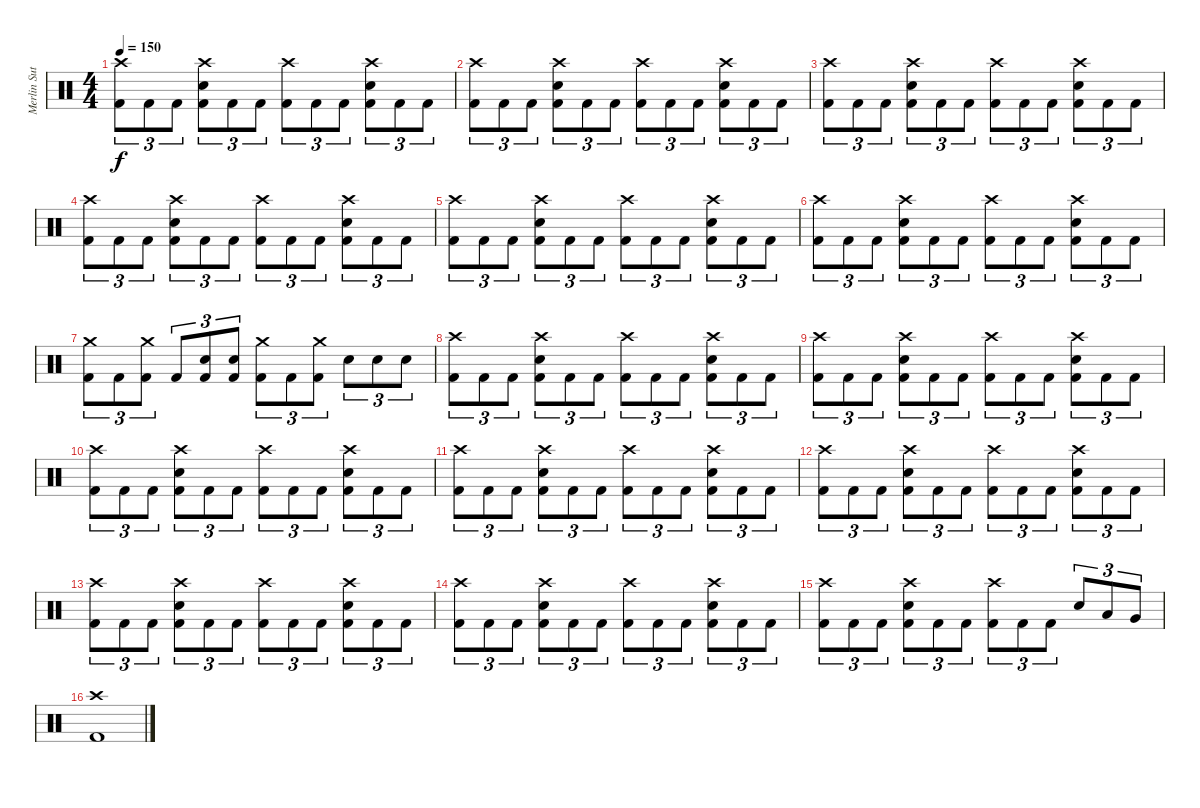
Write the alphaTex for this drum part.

\track ("Merlin Sutter" "Merlin Sut") {instrument percussion}
\staff {score}
\articulation defaults
\ts (4 4)
\tempo 150
\clef neutral
\ks c
("Crash high (hit)" "Kick (hit) 2").8{tu (3 2) dy f} "Kick (hit) 2".8{tu (3 2)} "Kick (hit) 2".8{tu (3 2)} ("Crash high (hit)" "Snare (hit) 2" "Kick (hit) 2").8{tu (3 2)} "Kick (hit) 2".8{tu (3 2)} "Kick (hit) 2".8{tu (3 2)} ("Crash high (hit)" "Kick (hit) 2").8{tu (3 2)} "Kick (hit) 2".8{tu (3 2)} "Kick (hit) 2".8{tu (3 2)} ("Crash high (hit)" "Snare (hit) 2" "Kick (hit) 2").8{tu (3 2)} "Kick (hit) 2".8{tu (3 2)} "Kick (hit) 2".8{tu (3 2)} |
("Crash high (hit)" "Kick (hit) 2").8{tu (3 2)} "Kick (hit) 2".8{tu (3 2)} "Kick (hit) 2".8{tu (3 2)} ("Crash high (hit)" "Snare (hit) 2" "Kick (hit) 2").8{tu (3 2)} "Kick (hit) 2".8{tu (3 2)} "Kick (hit) 2".8{tu (3 2)} ("Crash high (hit)" "Kick (hit) 2").8{tu (3 2)} "Kick (hit) 2".8{tu (3 2)} "Kick (hit) 2".8{tu (3 2)} ("Crash high (hit)" "Snare (hit) 2" "Kick (hit) 2").8{tu (3 2)} "Kick (hit) 2".8{tu (3 2)} "Kick (hit) 2".8{tu (3 2)} |
("Crash high (hit)" "Kick (hit) 2").8{tu (3 2)} "Kick (hit) 2".8{tu (3 2)} "Kick (hit) 2".8{tu (3 2)} ("Crash high (hit)" "Snare (hit) 2" "Kick (hit) 2").8{tu (3 2)} "Kick (hit) 2".8{tu (3 2)} "Kick (hit) 2".8{tu (3 2)} ("Crash high (hit)" "Kick (hit) 2").8{tu (3 2)} "Kick (hit) 2".8{tu (3 2)} "Kick (hit) 2".8{tu (3 2)} ("Crash high (hit)" "Snare (hit) 2" "Kick (hit) 2").8{tu (3 2)} "Kick (hit) 2".8{tu (3 2)} "Kick (hit) 2".8{tu (3 2)} |
("Crash high (hit)" "Kick (hit) 2").8{tu (3 2)} "Kick (hit) 2".8{tu (3 2)} "Kick (hit) 2".8{tu (3 2)} ("Crash high (hit)" "Snare (hit) 2" "Kick (hit) 2").8{tu (3 2)} "Kick (hit) 2".8{tu (3 2)} "Kick (hit) 2".8{tu (3 2)} ("Crash high (hit)" "Kick (hit) 2").8{tu (3 2)} "Kick (hit) 2".8{tu (3 2)} "Kick (hit) 2".8{tu (3 2)} ("Crash high (hit)" "Snare (hit) 2" "Kick (hit) 2").8{tu (3 2)} "Kick (hit) 2".8{tu (3 2)} "Kick (hit) 2".8{tu (3 2)} |
("Crash high (hit)" "Kick (hit) 2").8{tu (3 2)} "Kick (hit) 2".8{tu (3 2)} "Kick (hit) 2".8{tu (3 2)} ("Crash high (hit)" "Snare (hit) 2" "Kick (hit) 2").8{tu (3 2)} "Kick (hit) 2".8{tu (3 2)} "Kick (hit) 2".8{tu (3 2)} ("Crash high (hit)" "Kick (hit) 2").8{tu (3 2)} "Kick (hit) 2".8{tu (3 2)} "Kick (hit) 2".8{tu (3 2)} ("Crash high (hit)" "Snare (hit) 2" "Kick (hit) 2").8{tu (3 2)} "Kick (hit) 2".8{tu (3 2)} "Kick (hit) 2".8{tu (3 2)} |
("Crash high (hit)" "Kick (hit) 2").8{tu (3 2)} "Kick (hit) 2".8{tu (3 2)} "Kick (hit) 2".8{tu (3 2)} ("Crash high (hit)" "Snare (hit) 2" "Kick (hit) 2").8{tu (3 2)} "Kick (hit) 2".8{tu (3 2)} "Kick (hit) 2".8{tu (3 2)} ("Crash high (hit)" "Kick (hit) 2").8{tu (3 2)} "Kick (hit) 2".8{tu (3 2)} "Kick (hit) 2".8{tu (3 2)} ("Crash high (hit)" "Snare (hit) 2" "Kick (hit) 2").8{tu (3 2)} "Kick (hit) 2".8{tu (3 2)} "Kick (hit) 2".8{tu (3 2)} |
("Crash medium (hit)" "Kick (hit) 2").8{tu (3 2)} "Kick (hit) 2".8{tu (3 2)} ("Crash medium (hit)" "Kick (hit) 2").8{tu (3 2)} "Kick (hit) 2".8{tu (3 2)} ("Snare (hit) 2" "Kick (hit) 2").8{tu (3 2)} ("Snare (hit) 2" "Kick (hit) 2").8{tu (3 2)} ("Crash medium (hit)" "Kick (hit) 2").8{tu (3 2)} "Kick (hit) 2".8{tu (3 2)} ("Crash medium (hit)" "Kick (hit) 2").8{tu (3 2)} "Snare (hit) 2".8{tu (3 2)} "Snare (hit) 2".8{tu (3 2)} "Snare (hit) 2".8{tu (3 2)} |
("Crash high (hit)" "Kick (hit) 2").8{tu (3 2)} "Kick (hit) 2".8{tu (3 2)} "Kick (hit) 2".8{tu (3 2)} ("Crash high (hit)" "Snare (hit) 2" "Kick (hit) 2").8{tu (3 2)} "Kick (hit) 2".8{tu (3 2)} "Kick (hit) 2".8{tu (3 2)} ("Crash high (hit)" "Kick (hit) 2").8{tu (3 2)} "Kick (hit) 2".8{tu (3 2)} "Kick (hit) 2".8{tu (3 2)} ("Crash high (hit)" "Snare (hit) 2" "Kick (hit) 2").8{tu (3 2)} "Kick (hit) 2".8{tu (3 2)} "Kick (hit) 2".8{tu (3 2)} |
("Crash high (hit)" "Kick (hit) 2").8{tu (3 2)} "Kick (hit) 2".8{tu (3 2)} "Kick (hit) 2".8{tu (3 2)} ("Crash high (hit)" "Snare (hit) 2" "Kick (hit) 2").8{tu (3 2)} "Kick (hit) 2".8{tu (3 2)} "Kick (hit) 2".8{tu (3 2)} ("Crash high (hit)" "Kick (hit) 2").8{tu (3 2)} "Kick (hit) 2".8{tu (3 2)} "Kick (hit) 2".8{tu (3 2)} ("Crash high (hit)" "Snare (hit) 2" "Kick (hit) 2").8{tu (3 2)} "Kick (hit) 2".8{tu (3 2)} "Kick (hit) 2".8{tu (3 2)} |
("Crash high (hit)" "Kick (hit) 2").8{tu (3 2)} "Kick (hit) 2".8{tu (3 2)} "Kick (hit) 2".8{tu (3 2)} ("Crash high (hit)" "Snare (hit) 2" "Kick (hit) 2").8{tu (3 2)} "Kick (hit) 2".8{tu (3 2)} "Kick (hit) 2".8{tu (3 2)} ("Crash high (hit)" "Kick (hit) 2").8{tu (3 2)} "Kick (hit) 2".8{tu (3 2)} "Kick (hit) 2".8{tu (3 2)} ("Crash high (hit)" "Snare (hit) 2" "Kick (hit) 2").8{tu (3 2)} "Kick (hit) 2".8{tu (3 2)} "Kick (hit) 2".8{tu (3 2)} |
("Crash high (hit)" "Kick (hit) 2").8{tu (3 2)} "Kick (hit) 2".8{tu (3 2)} "Kick (hit) 2".8{tu (3 2)} ("Crash high (hit)" "Snare (hit) 2" "Kick (hit) 2").8{tu (3 2)} "Kick (hit) 2".8{tu (3 2)} "Kick (hit) 2".8{tu (3 2)} ("Crash high (hit)" "Kick (hit) 2").8{tu (3 2)} "Kick (hit) 2".8{tu (3 2)} "Kick (hit) 2".8{tu (3 2)} ("Crash high (hit)" "Snare (hit) 2" "Kick (hit) 2").8{tu (3 2)} "Kick (hit) 2".8{tu (3 2)} "Kick (hit) 2".8{tu (3 2)} |
("Crash high (hit)" "Kick (hit) 2").8{tu (3 2)} "Kick (hit) 2".8{tu (3 2)} "Kick (hit) 2".8{tu (3 2)} ("Crash high (hit)" "Snare (hit) 2" "Kick (hit) 2").8{tu (3 2)} "Kick (hit) 2".8{tu (3 2)} "Kick (hit) 2".8{tu (3 2)} ("Crash high (hit)" "Kick (hit) 2").8{tu (3 2)} "Kick (hit) 2".8{tu (3 2)} "Kick (hit) 2".8{tu (3 2)} ("Crash high (hit)" "Snare (hit) 2" "Kick (hit) 2").8{tu (3 2)} "Kick (hit) 2".8{tu (3 2)} "Kick (hit) 2".8{tu (3 2)} |
("Crash high (hit)" "Kick (hit) 2").8{tu (3 2)} "Kick (hit) 2".8{tu (3 2)} "Kick (hit) 2".8{tu (3 2)} ("Crash high (hit)" "Snare (hit) 2" "Kick (hit) 2").8{tu (3 2)} "Kick (hit) 2".8{tu (3 2)} "Kick (hit) 2".8{tu (3 2)} ("Crash high (hit)" "Kick (hit) 2").8{tu (3 2)} "Kick (hit) 2".8{tu (3 2)} "Kick (hit) 2".8{tu (3 2)} ("Crash high (hit)" "Snare (hit) 2" "Kick (hit) 2").8{tu (3 2)} "Kick (hit) 2".8{tu (3 2)} "Kick (hit) 2".8{tu (3 2)} |
("Crash high (hit)" "Kick (hit) 2").8{tu (3 2)} "Kick (hit) 2".8{tu (3 2)} "Kick (hit) 2".8{tu (3 2)} ("Crash high (hit)" "Snare (hit) 2" "Kick (hit) 2").8{tu (3 2)} "Kick (hit) 2".8{tu (3 2)} "Kick (hit) 2".8{tu (3 2)} ("Crash high (hit)" "Kick (hit) 2").8{tu (3 2)} "Kick (hit) 2".8{tu (3 2)} "Kick (hit) 2".8{tu (3 2)} ("Crash high (hit)" "Snare (hit) 2" "Kick (hit) 2").8{tu (3 2)} "Kick (hit) 2".8{tu (3 2)} "Kick (hit) 2".8{tu (3 2)} |
("Crash high (hit)" "Kick (hit) 2").8{tu (3 2)} "Kick (hit) 2".8{tu (3 2)} "Kick (hit) 2".8{tu (3 2)} ("Crash high (hit)" "Snare (hit) 2" "Kick (hit) 2").8{tu (3 2)} "Kick (hit) 2".8{tu (3 2)} "Kick (hit) 2".8{tu (3 2)} ("Crash high (hit)" "Kick (hit) 2").8{tu (3 2)} "Kick (hit) 2".8{tu (3 2)} "Kick (hit) 2".8{tu (3 2)} "Snare (hit) 2".8{tu (3 2)} "Low Tom (hit)".8{tu (3 2)} "Very Low Tom (hit)".8{tu (3 2)} |
("Crash high (hit)" "Kick (hit) 2").1
